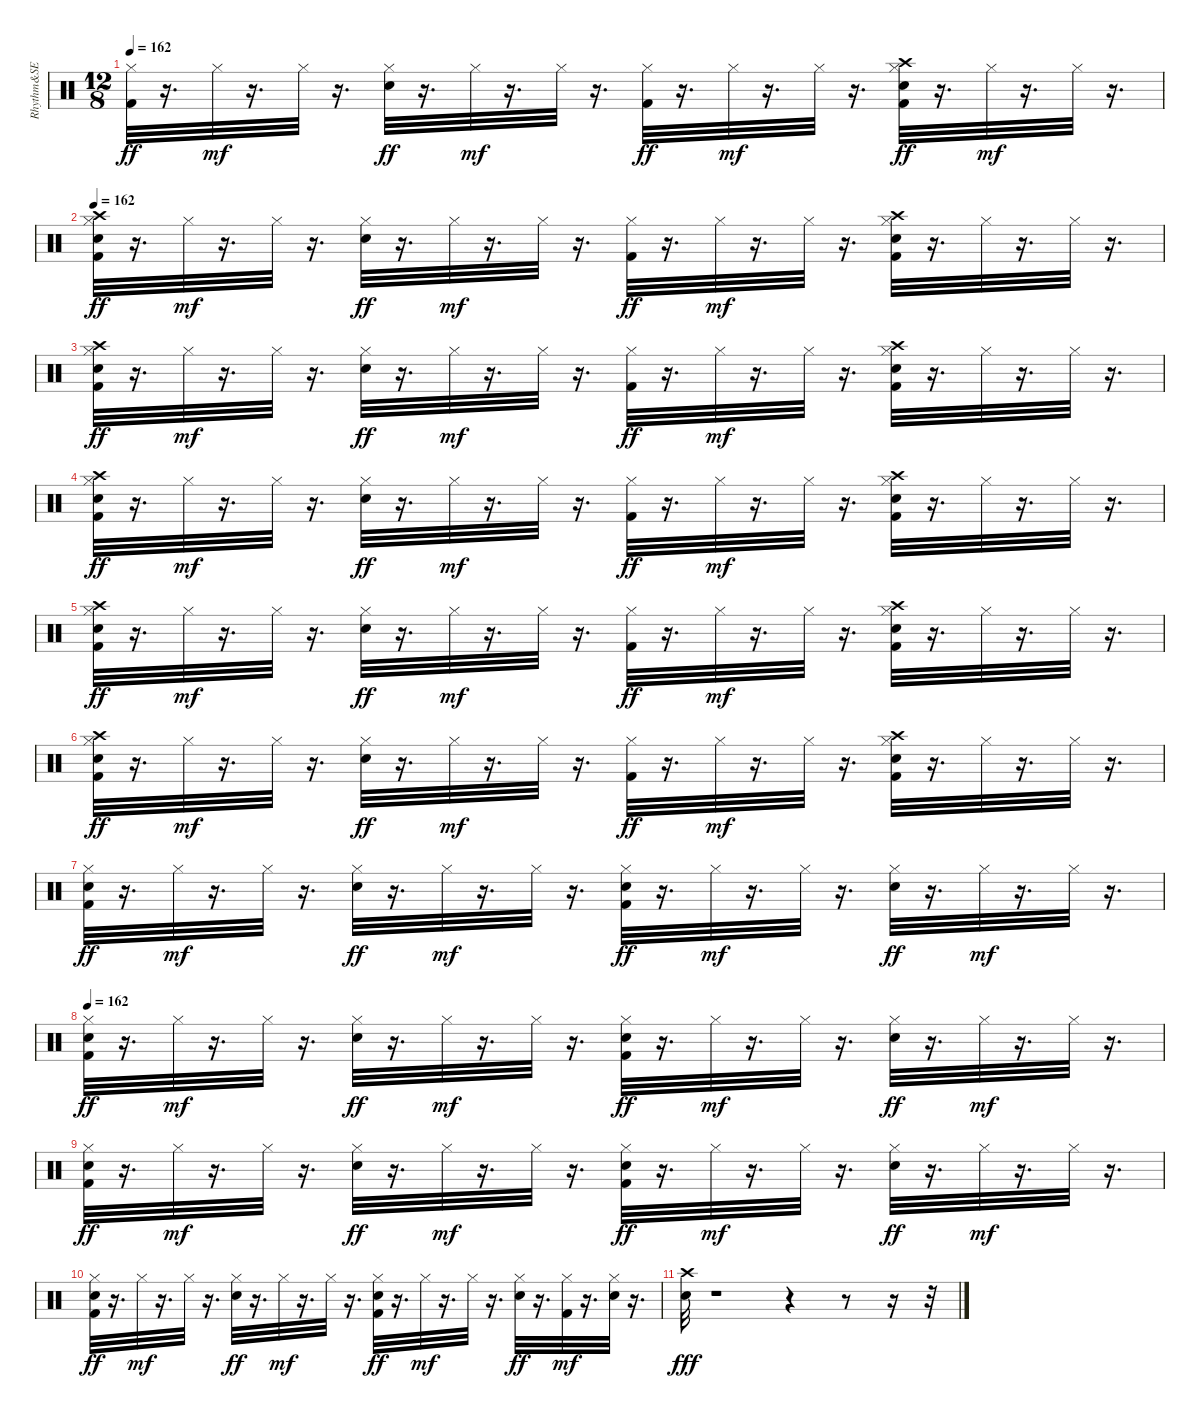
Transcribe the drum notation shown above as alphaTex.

\track ("Rhythm&SE" "Rhythm&SE") {instrument percussion}
\staff {score}
\articulation defaults
\ts (12 8)
\tempo 162
\clef neutral
\ks c
("Kick (hit) 2" "Hi-Hat (closed)").32{dy ff volume 14 balance 8} r.16{d} "Hi-Hat (closed)".32{dy mf} r.16{d} "Hi-Hat (closed)".32{volume 14} r.16{d} ("Snare (hit) 2" "Hi-Hat (closed)").32{dy ff} r.16{d} "Hi-Hat (closed)".32{dy mf} r.16{d} "Hi-Hat (closed)".32 r.16{d} ("Kick (hit) 2" "Hi-Hat (closed)").32{dy ff} r.16{d} "Hi-Hat (closed)".32{dy mf} r.16{d} "Hi-Hat (closed)".32 r.16{d} ("Snare (hit) 2" "Hi-Hat (closed)" "Kick (hit) 2" "Crash high (hit)").32{dy ff} r.16{d} "Hi-Hat (closed)".32{dy mf} r.16{d} "Hi-Hat (closed)".32 r.16{d} |
\tempo 162
("Kick (hit) 2" "Hi-Hat (closed)" "Snare (hit) 2" "Crash high (hit)").32{dy ff volume 14 balance 8} r.16{d} "Hi-Hat (closed)".32{dy mf} r.16{d} "Hi-Hat (closed)".32{volume 14} r.16{d} ("Snare (hit) 2" "Hi-Hat (closed)").32{dy ff} r.16{d} "Hi-Hat (closed)".32{dy mf} r.16{d} "Hi-Hat (closed)".32 r.16{d} ("Kick (hit) 2" "Hi-Hat (closed)").32{dy ff} r.16{d} "Hi-Hat (closed)".32{dy mf} r.16{d} "Hi-Hat (closed)".32 r.16{d} ("Snare (hit) 2" "Hi-Hat (closed)" "Kick (hit) 2" "Crash high (hit)").32 r.16{d} "Hi-Hat (closed)".32 r.16{d} "Hi-Hat (closed)".32 r.16{d} |
("Kick (hit) 2" "Hi-Hat (closed)" "Snare (hit) 2" "Crash high (hit)").32{dy ff volume 14 balance 8} r.16{d} "Hi-Hat (closed)".32{dy mf} r.16{d} "Hi-Hat (closed)".32{volume 14} r.16{d} ("Snare (hit) 2" "Hi-Hat (closed)").32{dy ff} r.16{d} "Hi-Hat (closed)".32{dy mf} r.16{d} "Hi-Hat (closed)".32 r.16{d} ("Kick (hit) 2" "Hi-Hat (closed)").32{dy ff} r.16{d} "Hi-Hat (closed)".32{dy mf} r.16{d} "Hi-Hat (closed)".32 r.16{d} ("Snare (hit) 2" "Hi-Hat (closed)" "Kick (hit) 2" "Crash high (hit)").32 r.16{d} "Hi-Hat (closed)".32 r.16{d} "Hi-Hat (closed)".32 r.16{d} |
("Kick (hit) 2" "Hi-Hat (closed)" "Snare (hit) 2" "Crash high (hit)").32{dy ff volume 14 balance 8} r.16{d} "Hi-Hat (closed)".32{dy mf} r.16{d} "Hi-Hat (closed)".32{volume 14} r.16{d} ("Snare (hit) 2" "Hi-Hat (closed)").32{dy ff} r.16{d} "Hi-Hat (closed)".32{dy mf} r.16{d} "Hi-Hat (closed)".32 r.16{d} ("Kick (hit) 2" "Hi-Hat (closed)").32{dy ff} r.16{d} "Hi-Hat (closed)".32{dy mf} r.16{d} "Hi-Hat (closed)".32 r.16{d} ("Snare (hit) 2" "Hi-Hat (closed)" "Kick (hit) 2" "Crash high (hit)").32 r.16{d} "Hi-Hat (closed)".32 r.16{d} "Hi-Hat (closed)".32 r.16{d} |
("Kick (hit) 2" "Hi-Hat (closed)" "Snare (hit) 2" "Crash high (hit)").32{dy ff volume 14 balance 8} r.16{d} "Hi-Hat (closed)".32{dy mf} r.16{d} "Hi-Hat (closed)".32{volume 14} r.16{d} ("Snare (hit) 2" "Hi-Hat (closed)").32{dy ff} r.16{d} "Hi-Hat (closed)".32{dy mf} r.16{d} "Hi-Hat (closed)".32 r.16{d} ("Kick (hit) 2" "Hi-Hat (closed)").32{dy ff} r.16{d} "Hi-Hat (closed)".32{dy mf} r.16{d} "Hi-Hat (closed)".32 r.16{d} ("Snare (hit) 2" "Hi-Hat (closed)" "Kick (hit) 2" "Crash high (hit)").32 r.16{d} "Hi-Hat (closed)".32 r.16{d} "Hi-Hat (closed)".32 r.16{d} |
("Kick (hit) 2" "Hi-Hat (closed)" "Snare (hit) 2" "Crash high (hit)").32{dy ff volume 14 balance 8} r.16{d} "Hi-Hat (closed)".32{dy mf} r.16{d} "Hi-Hat (closed)".32{volume 14} r.16{d} ("Snare (hit) 2" "Hi-Hat (closed)").32{dy ff} r.16{d} "Hi-Hat (closed)".32{dy mf} r.16{d} "Hi-Hat (closed)".32 r.16{d} ("Kick (hit) 2" "Hi-Hat (closed)").32{dy ff} r.16{d} "Hi-Hat (closed)".32{dy mf} r.16{d} "Hi-Hat (closed)".32 r.16{d} ("Snare (hit) 2" "Hi-Hat (closed)" "Kick (hit) 2" "Crash high (hit)").32 r.16{d} "Hi-Hat (closed)".32 r.16{d} "Hi-Hat (closed)".32 r.16{d} |
("Kick (hit) 2" "Snare (hit) 2" "Hi-Hat (closed)").32{dy ff volume 14 balance 8} r.16{d} "Hi-Hat (closed)".32{dy mf} r.16{d} "Hi-Hat (closed)".32{volume 14} r.16{d} ("Snare (hit) 2" "Hi-Hat (closed)").32{dy ff} r.16{d} "Hi-Hat (closed)".32{dy mf} r.16{d} "Hi-Hat (closed)".32 r.16{d} ("Kick (hit) 2" "Snare (hit) 2" "Hi-Hat (closed)").32{dy ff} r.16{d} "Hi-Hat (closed)".32{dy mf} r.16{d} "Hi-Hat (closed)".32 r.16{d} ("Snare (hit) 2" "Hi-Hat (closed)").32{dy ff} r.16{d} "Hi-Hat (closed)".32{dy mf} r.16{d} "Hi-Hat (closed)".32 r.16{d} |
\tempo 162
("Kick (hit) 2" "Snare (hit) 2" "Hi-Hat (closed)").32{dy ff volume 14 balance 8} r.16{d} "Hi-Hat (closed)".32{dy mf} r.16{d} "Hi-Hat (closed)".32{volume 14} r.16{d} ("Snare (hit) 2" "Hi-Hat (closed)").32{dy ff} r.16{d} "Hi-Hat (closed)".32{dy mf} r.16{d} "Hi-Hat (closed)".32 r.16{d} ("Kick (hit) 2" "Snare (hit) 2" "Hi-Hat (closed)").32{dy ff} r.16{d} "Hi-Hat (closed)".32{dy mf} r.16{d} "Hi-Hat (closed)".32 r.16{d} ("Snare (hit) 2" "Hi-Hat (closed)").32{dy ff} r.16{d} "Hi-Hat (closed)".32{dy mf} r.16{d} "Hi-Hat (closed)".32 r.16{d} |
("Kick (hit) 2" "Snare (hit) 2" "Hi-Hat (closed)").32{dy ff balance 8} r.16{d} "Hi-Hat (closed)".32{dy mf} r.16{d} "Hi-Hat (closed)".32 r.16{d} ("Snare (hit) 2" "Hi-Hat (closed)").32{dy ff} r.16{d} "Hi-Hat (closed)".32{dy mf} r.16{d} "Hi-Hat (closed)".32 r.16{d} ("Kick (hit) 2" "Snare (hit) 2" "Hi-Hat (closed)").32{dy ff} r.16{d} "Hi-Hat (closed)".32{dy mf} r.16{d} "Hi-Hat (closed)".32 r.16{d} ("Snare (hit) 2" "Hi-Hat (closed)").32{dy ff} r.16{d} "Hi-Hat (closed)".32{dy mf} r.16{d} "Hi-Hat (closed)".32 r.16{d} |
("Kick (hit) 2" "Snare (hit) 2" "Hi-Hat (closed)").32{dy ff balance 8} r.16{d} "Hi-Hat (closed)".32{dy mf} r.16{d} "Hi-Hat (closed)".32 r.16{d} ("Snare (hit) 2" "Hi-Hat (closed)").32{dy ff} r.16{d} "Hi-Hat (closed)".32{dy mf} r.16{d} "Hi-Hat (closed)".32 r.16{d} ("Kick (hit) 2" "Snare (hit) 2" "Hi-Hat (closed)").32{dy ff} r.16{d} "Hi-Hat (closed)".32{dy mf} r.16{d} "Hi-Hat (closed)".32 r.16{d} ("Snare (hit) 2" "Hi-Hat (closed)").32{dy ff} r.16{d} ("Kick (hit) 2" "Hi-Hat (closed)").32{dy mf} r.16{d} ("Snare (hit) 2" "Hi-Hat (closed)").32 r.16{d} |
("Snare (hit) 2" "Crash high (hit)").32{dy fff} r.1 r.4 r.8 r.16 r.32
